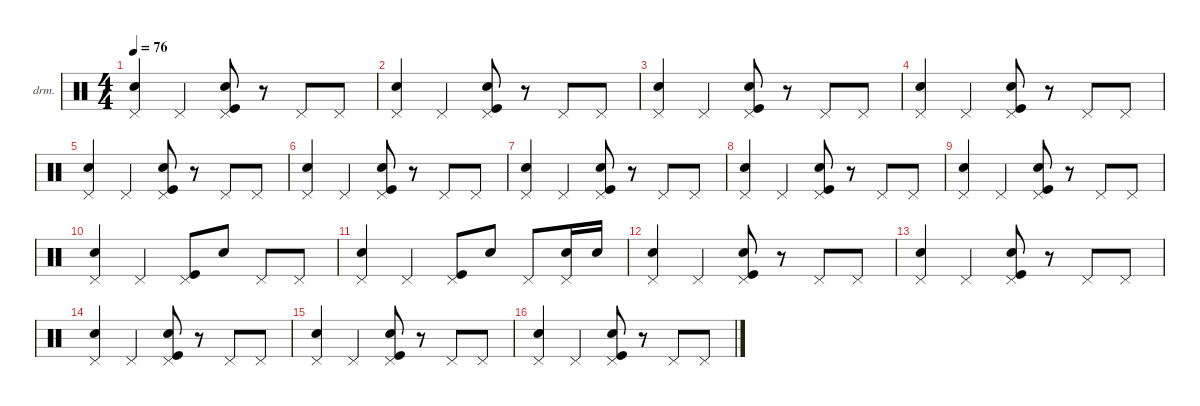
\defaultSystemsLayout 4
\hideDynamics
\bracketExtendMode nobrackets
\firstSystemTrackNameOrientation horizontal
\otherSystemsTrackNameOrientation horizontal
\track ("Drums" "drm.") {instrument percussion}
\staff {score}
\articulation defaults
\ts (4 4)
\tempo 76
\clef neutral
\ks c
("Pedal Hi-Hat (hit)" "Snare (hit) 2").4{dy f} "Pedal Hi-Hat (hit)".4 ("Pedal Hi-Hat (hit)" "Snare (hit) 2" "Kick (hit)").8 r.8 "Pedal Hi-Hat (hit)".8 "Pedal Hi-Hat (hit)".8 |
("Pedal Hi-Hat (hit)" "Snare (hit) 2").4 "Pedal Hi-Hat (hit)".4 ("Pedal Hi-Hat (hit)" "Snare (hit) 2" "Kick (hit)").8 r.8 "Pedal Hi-Hat (hit)".8 "Pedal Hi-Hat (hit)".8 |
("Pedal Hi-Hat (hit)" "Snare (hit) 2").4 "Pedal Hi-Hat (hit)".4 ("Pedal Hi-Hat (hit)" "Snare (hit) 2" "Kick (hit)").8 r.8 "Pedal Hi-Hat (hit)".8 "Pedal Hi-Hat (hit)".8 |
("Pedal Hi-Hat (hit)" "Snare (hit) 2").4 "Pedal Hi-Hat (hit)".4 ("Pedal Hi-Hat (hit)" "Snare (hit) 2" "Kick (hit)").8 r.8 "Pedal Hi-Hat (hit)".8 "Pedal Hi-Hat (hit)".8 |
("Pedal Hi-Hat (hit)" "Snare (hit) 2").4 "Pedal Hi-Hat (hit)".4 ("Pedal Hi-Hat (hit)" "Snare (hit) 2" "Kick (hit)").8 r.8 "Pedal Hi-Hat (hit)".8 "Pedal Hi-Hat (hit)".8 |
("Pedal Hi-Hat (hit)" "Snare (hit) 2").4 "Pedal Hi-Hat (hit)".4 ("Pedal Hi-Hat (hit)" "Snare (hit) 2" "Kick (hit)").8 r.8 "Pedal Hi-Hat (hit)".8 "Pedal Hi-Hat (hit)".8 |
("Pedal Hi-Hat (hit)" "Snare (hit) 2").4 "Pedal Hi-Hat (hit)".4 ("Pedal Hi-Hat (hit)" "Snare (hit) 2" "Kick (hit)").8 r.8 "Pedal Hi-Hat (hit)".8 "Pedal Hi-Hat (hit)".8 |
("Pedal Hi-Hat (hit)" "Snare (hit) 2").4 "Pedal Hi-Hat (hit)".4 ("Pedal Hi-Hat (hit)" "Snare (hit) 2" "Kick (hit)").8 r.8 "Pedal Hi-Hat (hit)".8 "Pedal Hi-Hat (hit)".8 |
("Pedal Hi-Hat (hit)" "Snare (hit) 2").4 "Pedal Hi-Hat (hit)".4 ("Pedal Hi-Hat (hit)" "Snare (hit) 2" "Kick (hit)").8 r.8 "Pedal Hi-Hat (hit)".8 "Pedal Hi-Hat (hit)".8 |
("Pedal Hi-Hat (hit)" "Snare (hit) 2").4 "Pedal Hi-Hat (hit)".4 ("Pedal Hi-Hat (hit)" "Kick (hit)").8 "Snare (hit) 2".8 "Pedal Hi-Hat (hit)".8 "Pedal Hi-Hat (hit)".8 |
("Pedal Hi-Hat (hit)" "Snare (hit) 2").4 "Pedal Hi-Hat (hit)".4 ("Pedal Hi-Hat (hit)" "Kick (hit)").8 "Snare (hit) 2".8 "Pedal Hi-Hat (hit)".8 ("Pedal Hi-Hat (hit)" "Snare (hit) 2").16 "Snare (hit) 2".16 |
("Pedal Hi-Hat (hit)" "Snare (hit) 2").4 "Pedal Hi-Hat (hit)".4 ("Pedal Hi-Hat (hit)" "Snare (hit) 2" "Kick (hit)").8 r.8 "Pedal Hi-Hat (hit)".8 "Pedal Hi-Hat (hit)".8 |
("Pedal Hi-Hat (hit)" "Snare (hit) 2").4 "Pedal Hi-Hat (hit)".4 ("Pedal Hi-Hat (hit)" "Snare (hit) 2" "Kick (hit)").8 r.8 "Pedal Hi-Hat (hit)".8 "Pedal Hi-Hat (hit)".8 |
("Pedal Hi-Hat (hit)" "Snare (hit) 2").4 "Pedal Hi-Hat (hit)".4 ("Pedal Hi-Hat (hit)" "Snare (hit) 2" "Kick (hit)").8 r.8 "Pedal Hi-Hat (hit)".8 "Pedal Hi-Hat (hit)".8 |
("Pedal Hi-Hat (hit)" "Snare (hit) 2").4 "Pedal Hi-Hat (hit)".4 ("Pedal Hi-Hat (hit)" "Snare (hit) 2" "Kick (hit)").8 r.8 "Pedal Hi-Hat (hit)".8 "Pedal Hi-Hat (hit)".8 |
("Pedal Hi-Hat (hit)" "Snare (hit) 2").4 "Pedal Hi-Hat (hit)".4 ("Pedal Hi-Hat (hit)" "Snare (hit) 2" "Kick (hit)").8 r.8 "Pedal Hi-Hat (hit)".8 "Pedal Hi-Hat (hit)".8
